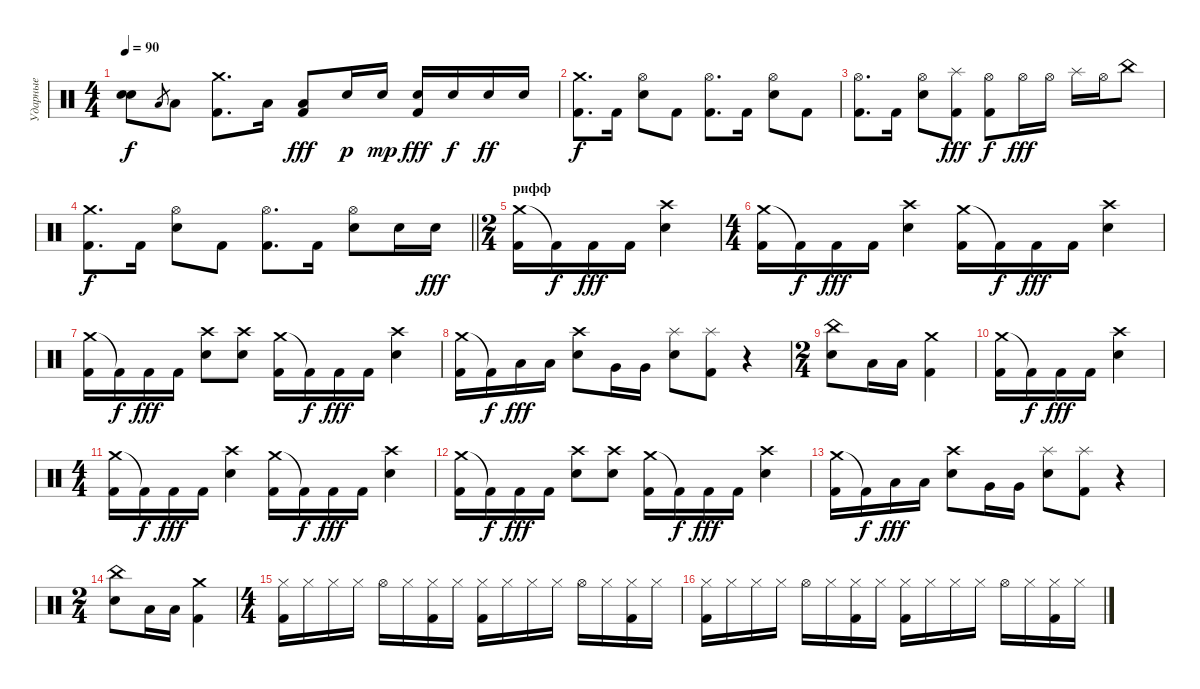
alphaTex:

\track ("Ударные" "Ударные") {instrument percussion}
\staff {score}
\articulation defaults
\ts (4 4)
\tempo 90
\clef neutral
\ks c
("Snare (hit)"{t} "Snare (hit)"{t}).8{dy f} "Low Tom (hit)".8{gr} "Low Tom (hit)".8 ("Crash medium (hit)" "Kick (hit) 2").8{d} "Low Tom (hit)".16 ("Low Tom (hit)" "Kick (hit) 2").8{dy fff} "Snare (hit) 2".16{dy p} "Snare (hit) 2".16{dy mp} ("Snare (hit) 2" "Kick (hit) 2").16{dy fff} "Snare (hit) 2".16{dy f} "Snare (hit) 2".16{dy ff} "Snare (hit) 2".16 |
("Crash medium (hit)" "Kick (hit) 2").8{d dy f} "Kick (hit) 2".16 ("Hi-Hat (open)" "Snare (hit) 2").8 "Kick (hit) 2".8 ("Hi-Hat (open)" "Kick (hit) 2").8{d} "Kick (hit) 2".16 ("Hi-Hat (open)" "Snare (hit) 2").8 "Kick (hit) 2".8 |
("Hi-Hat (open)" "Kick (hit) 2").8{d} "Kick (hit) 2".16 ("Hi-Hat (open)" "Snare (hit) 2").8 ("Splash (hit)" "Kick (hit) 2").8{dy fff} ("Hi-Hat (open)" "Kick (hit) 2").8{dy f} "Hi-Hat (open)".16{dy fff} "Hi-Hat (open)".16 "Splash (hit)".16 "Hi-Hat (open)".16 "China (hit)".8 |
\barLineRight lightlight
("Crash medium (hit)" "Kick (hit) 2").8{d dy f} "Kick (hit) 2".16 ("Hi-Hat (open)" "Snare (hit) 2").8 "Kick (hit) 2".8 ("Hi-Hat (open)" "Kick (hit) 2").8{d} "Kick (hit) 2".16 ("Hi-Hat (open)" "Snare (hit) 2").8 "Snare (hit) 2".16 "Snare (hit) 2".16{dy fff} |
\ts (2 4)
\section ("" "рифф")
("Crash medium (hit)" "Kick (hit) 2").16 "Kick (hit) 2"{t}.16{dy f} "Kick (hit) 2".16{dy fff} "Kick (hit) 2".16 ("Crash high (hit)" "Snare (hit) 2").4 |
\ts (4 4)
("Crash medium (hit)" "Kick (hit) 2").16 "Kick (hit) 2"{t}.16{dy f} "Kick (hit) 2".16{dy fff} "Kick (hit) 2".16 ("Crash high (hit)" "Snare (hit) 2").4 ("Crash medium (hit)" "Kick (hit) 2").16 "Kick (hit) 2"{t}.16{dy f} "Kick (hit) 2".16{dy fff} "Kick (hit) 2".16 ("Crash high (hit)" "Snare (hit) 2").4 |
("Crash medium (hit)" "Kick (hit) 2").16 "Kick (hit) 2"{t}.16{dy f} "Kick (hit) 2".16{dy fff} "Kick (hit) 2".16 ("Crash high (hit)" "Snare (hit) 2").8 ("Crash high (hit)" "Snare (hit) 2").8 ("Crash medium (hit)" "Kick (hit) 2").16 "Kick (hit) 2"{t}.16{dy f} "Kick (hit) 2".16{dy fff} "Kick (hit) 2".16 ("Crash high (hit)" "Snare (hit) 2").4 |
("Crash medium (hit)" "Kick (hit) 2").16 "Kick (hit) 2"{t}.16{dy f} "Low Tom (hit)".16{dy fff} "Low Tom (hit)".16 ("Crash high (hit)" "Snare (hit) 2").8 "Very Low Tom (hit)".16 "Very Low Tom (hit)".16 ("Splash (hit)" "Snare (hit) 2").8 ("Splash (hit)" "Kick (hit) 2").8 r.4 |
\ts (2 4)
("China (hit)" "Snare (hit) 2").8 "Low Tom (hit)".16 "Low Tom (hit)".16 ("Crash medium (hit)" "Kick (hit) 2").4 |
("Crash medium (hit)" "Kick (hit) 2").16 "Kick (hit) 2"{t}.16{dy f} "Kick (hit) 2".16{dy fff} "Kick (hit) 2".16 ("Crash high (hit)" "Snare (hit) 2").4 |
\ts (4 4)
("Crash medium (hit)" "Kick (hit) 2").16 "Kick (hit) 2"{t}.16{dy f} "Kick (hit) 2".16{dy fff} "Kick (hit) 2".16 ("Crash high (hit)" "Snare (hit) 2").4 ("Crash medium (hit)" "Kick (hit) 2").16 "Kick (hit) 2"{t}.16{dy f} "Kick (hit) 2".16{dy fff} "Kick (hit) 2".16 ("Crash high (hit)" "Snare (hit) 2").4 |
("Crash medium (hit)" "Kick (hit) 2").16 "Kick (hit) 2"{t}.16{dy f} "Kick (hit) 2".16{dy fff} "Kick (hit) 2".16 ("Crash high (hit)" "Snare (hit) 2").8 ("Crash high (hit)" "Snare (hit) 2").8 ("Crash medium (hit)" "Kick (hit) 2").16 "Kick (hit) 2"{t}.16{dy f} "Kick (hit) 2".16{dy fff} "Kick (hit) 2".16 ("Crash high (hit)" "Snare (hit) 2").4 |
("Crash medium (hit)" "Kick (hit) 2").16 "Kick (hit) 2"{t}.16{dy f} "Low Tom (hit)".16{dy fff} "Low Tom (hit)".16 ("Crash high (hit)" "Snare (hit) 2").8 "Very Low Tom (hit)".16 "Very Low Tom (hit)".16 ("Splash (hit)" "Snare (hit) 2").8 ("Splash (hit)" "Kick (hit) 2").8 r.4 |
\ts (2 4)
("China (hit)" "Snare (hit) 2").8 "Low Tom (hit)".16 "Low Tom (hit)".16 ("Crash medium (hit)" "Kick (hit) 2").4 |
\ts (4 4)
("Hi-Hat (closed)" "Kick (hit) 2").16 "Hi-Hat (closed)".16 "Hi-Hat (closed)".16 "Hi-Hat (closed)".16 "Hi-Hat (open)".16 "Hi-Hat (closed)".16 ("Hi-Hat (closed)" "Kick (hit) 2").16 "Hi-Hat (closed)".16 ("Hi-Hat (closed)" "Kick (hit) 2").16 "Hi-Hat (closed)".16 "Hi-Hat (closed)".16 "Hi-Hat (closed)".16 "Hi-Hat (open)".16 "Hi-Hat (closed)".16 ("Hi-Hat (closed)" "Kick (hit) 2").16 "Hi-Hat (closed)".16 |
("Hi-Hat (closed)" "Kick (hit) 2").16 "Hi-Hat (closed)".16 "Hi-Hat (closed)".16 "Hi-Hat (closed)".16 "Hi-Hat (open)".16 "Hi-Hat (closed)".16 ("Hi-Hat (closed)" "Kick (hit) 2").16 "Hi-Hat (closed)".16 ("Hi-Hat (closed)" "Kick (hit) 2").16 "Hi-Hat (closed)".16 "Hi-Hat (closed)".16 "Hi-Hat (closed)".16 "Hi-Hat (open)".16 "Hi-Hat (closed)".16 ("Hi-Hat (closed)" "Kick (hit) 2").16 "Hi-Hat (closed)".16
